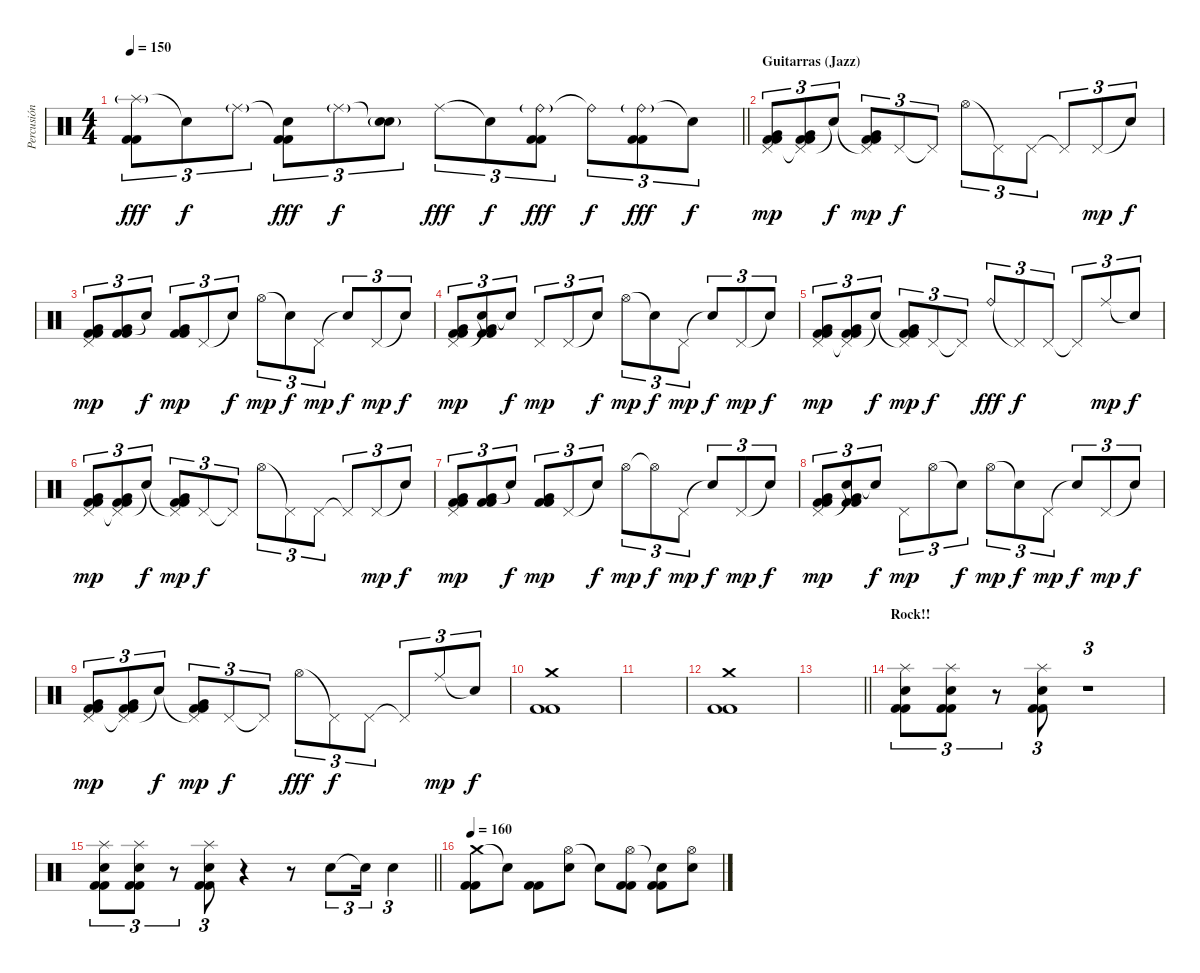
\track ("Percusión" "Percusión") {instrument percussion}
\staff {score}
\articulation defaults
\ts (4 4)
\tempo 150
\clef neutral
\barLineRight lightlight
\ks c
("Splash (hit)"{g} "Kick (hit) 2" "Kick (hit) 2").8{tu (3 2) dy fff} "Snare (hit)"{t}.8{tu (3 2) dy f} "Ride (middle)"{g}.8{tu (3 2)} ("Snare (hit)"{t} "Kick (hit) 2" "Kick (hit) 2").8{tu (3 2) dy fff} "Ride (middle)"{g}.8{tu (3 2) dy f} ("Snare (hit)"{t} "Snare (hit) 2"{g}).8{tu (3 2)} "Ride (middle)".8{tu (3 2) dy fff} "Snare (hit)"{t}.8{tu (3 2) dy f} ("Ride (bell)"{g} "Kick (hit) 2" "Kick (hit) 2").8{tu (3 2) dy fff} "Ride (bell)"{t}.8{tu (3 2) dy f} ("Ride (bell)"{g} "Kick (hit) 2" "Kick (hit) 2").8{tu (3 2) dy fff} "Snare (hit)"{t}.8{tu (3 2) dy f} |
\section ("" "Guitarras (Jazz)")
("Pedal Hi-Hat (hit)" "Very Low Tom (hit)" "Kick (hit) 2" "Kick (hit) 2").8{tu (3 2) dy mp} ("Pedal Hi-Hat (hit)"{t} "Very Low Tom (hit)" "Kick (hit) 2" "Kick (hit) 2").8{tu (3 2)} "Snare (hit)"{t}.8{tu (3 2) dy f} ("Pedal Hi-Hat (hit)"{t} "Very Low Tom (hit)" "Kick (hit) 2" "Kick (hit) 2").8{tu (3 2) dy mp} "Pedal Hi-Hat (hit)".8{tu (3 2) dy f} "Pedal Hi-Hat (hit)"{t}.8{tu (3 2)} "Hi-Hat (open)".8{tu (3 2)} "Pedal Hi-Hat (hit)"{t}.8{tu (3 2)} "Pedal Hi-Hat (hit)".8{tu (3 2)} "Pedal Hi-Hat (hit)"{t}.8{tu (3 2)} "Pedal Hi-Hat (hit)".8{tu (3 2) dy mp} "Snare (hit)"{t}.8{tu (3 2) dy f} |
("Pedal Hi-Hat (hit)" "Very Low Tom (hit)" "Kick (hit) 2" "Kick (hit) 2").8{tu (3 2) dy mp} ("Very Low Tom (hit)" "Kick (hit) 2" "Kick (hit) 2").8{tu (3 2)} "Snare (hit)"{t}.8{tu (3 2) dy f} ("Very Low Tom (hit)" "Kick (hit) 2" "Kick (hit) 2").8{tu (3 2) dy mp} "Pedal Hi-Hat (hit)".8{tu (3 2)} "Snare (hit)"{t}.8{tu (3 2) dy f} "Hi-Hat (open)".8{tu (3 2) dy mp} "Snare (hit)"{t}.8{tu (3 2) dy f} "Pedal Hi-Hat (hit)".8{tu (3 2) dy mp} "Snare (hit)"{t}.8{tu (3 2) dy f} "Pedal Hi-Hat (hit)".8{tu (3 2) dy mp} "Snare (hit)"{t}.8{tu (3 2) dy f} |
("Pedal Hi-Hat (hit)" "Very Low Tom (hit)" "Kick (hit) 2" "Kick (hit) 2").8{tu (3 2) dy mp} ("Snare (hit)"{t} "Very Low Tom (hit)" "Kick (hit) 2" "Kick (hit) 2").8{tu (3 2)} "Snare (hit)"{t}.8{tu (3 2) dy f} "Pedal Hi-Hat (hit)".8{tu (3 2) dy mp} "Pedal Hi-Hat (hit)".8{tu (3 2)} "Snare (hit)"{t}.8{tu (3 2) dy f} "Hi-Hat (open)".8{tu (3 2) dy mp} "Snare (hit)"{t}.8{tu (3 2) dy f} "Pedal Hi-Hat (hit)".8{tu (3 2) dy mp} "Snare (hit)"{t}.8{tu (3 2) dy f} "Pedal Hi-Hat (hit)".8{tu (3 2) dy mp} "Snare (hit)"{t}.8{tu (3 2) dy f} |
("Pedal Hi-Hat (hit)" "Very Low Tom (hit)" "Kick (hit) 2" "Kick (hit) 2").8{tu (3 2) dy mp} ("Pedal Hi-Hat (hit)"{t} "Very Low Tom (hit)" "Kick (hit) 2" "Kick (hit) 2").8{tu (3 2)} "Snare (hit)"{t}.8{tu (3 2) dy f} ("Pedal Hi-Hat (hit)"{t} "Very Low Tom (hit)" "Kick (hit) 2" "Kick (hit) 2").8{tu (3 2) dy mp} "Pedal Hi-Hat (hit)".8{tu (3 2) dy f} "Pedal Hi-Hat (hit)"{t}.8{tu (3 2)} "Ride (bell)".8{tu (3 2) dy fff} "Pedal Hi-Hat (hit)"{t}.8{tu (3 2) dy f} "Pedal Hi-Hat (hit)".8{tu (3 2)} "Pedal Hi-Hat (hit)"{t}.8{tu (3 2)} "Ride (middle)".8{tu (3 2) dy mp} "Snare (hit)"{t}.8{tu (3 2) dy f} |
("Pedal Hi-Hat (hit)" "Very Low Tom (hit)" "Kick (hit) 2" "Kick (hit) 2").8{tu (3 2) dy mp} ("Pedal Hi-Hat (hit)"{t} "Very Low Tom (hit)" "Kick (hit) 2" "Kick (hit) 2").8{tu (3 2)} "Snare (hit)"{t}.8{tu (3 2) dy f} ("Pedal Hi-Hat (hit)"{t} "Very Low Tom (hit)" "Kick (hit) 2" "Kick (hit) 2").8{tu (3 2) dy mp} "Pedal Hi-Hat (hit)".8{tu (3 2) dy f} "Pedal Hi-Hat (hit)"{t}.8{tu (3 2)} "Hi-Hat (open)".8{tu (3 2)} "Pedal Hi-Hat (hit)"{t}.8{tu (3 2)} "Pedal Hi-Hat (hit)".8{tu (3 2)} "Pedal Hi-Hat (hit)"{t}.8{tu (3 2)} "Pedal Hi-Hat (hit)".8{tu (3 2) dy mp} "Snare (hit)"{t}.8{tu (3 2) dy f} |
("Pedal Hi-Hat (hit)" "Very Low Tom (hit)" "Kick (hit) 2" "Kick (hit) 2").8{tu (3 2) dy mp} ("Very Low Tom (hit)" "Kick (hit) 2" "Kick (hit) 2").8{tu (3 2)} "Snare (hit)"{t}.8{tu (3 2) dy f} ("Very Low Tom (hit)" "Kick (hit) 2" "Kick (hit) 2").8{tu (3 2) dy mp} "Pedal Hi-Hat (hit)".8{tu (3 2)} "Snare (hit)"{t}.8{tu (3 2) dy f} "Hi-Hat (open)".8{tu (3 2) dy mp} "Hi-Hat (open)"{t}.8{tu (3 2) dy f} "Pedal Hi-Hat (hit)".8{tu (3 2) dy mp} "Snare (hit)"{t}.8{tu (3 2) dy f} "Pedal Hi-Hat (hit)".8{tu (3 2) dy mp} "Snare (hit)"{t}.8{tu (3 2) dy f} |
("Pedal Hi-Hat (hit)" "Very Low Tom (hit)" "Kick (hit) 2" "Kick (hit) 2").8{tu (3 2) dy mp} ("Snare (hit)"{t} "Very Low Tom (hit)" "Kick (hit) 2" "Kick (hit) 2").8{tu (3 2)} "Snare (hit)"{t}.8{tu (3 2) dy f} "Pedal Hi-Hat (hit)".8{tu (3 2) dy mp} "Hi-Hat (open)".8{tu (3 2)} "Snare (hit)"{t}.8{tu (3 2) dy f} "Hi-Hat (open)".8{tu (3 2) dy mp} "Snare (hit)"{t}.8{tu (3 2) dy f} "Pedal Hi-Hat (hit)".8{tu (3 2) dy mp} "Snare (hit)"{t}.8{tu (3 2) dy f} "Pedal Hi-Hat (hit)".8{tu (3 2) dy mp} "Snare (hit)"{t}.8{tu (3 2) dy f} |
("Pedal Hi-Hat (hit)" "Very Low Tom (hit)" "Kick (hit) 2" "Kick (hit) 2").8{tu (3 2) dy mp} ("Pedal Hi-Hat (hit)"{t} "Very Low Tom (hit)" "Kick (hit) 2" "Kick (hit) 2").8{tu (3 2)} "Snare (hit)"{t}.8{tu (3 2) dy f} ("Pedal Hi-Hat (hit)"{t} "Very Low Tom (hit)" "Kick (hit) 2" "Kick (hit) 2").8{tu (3 2) dy mp} "Pedal Hi-Hat (hit)".8{tu (3 2) dy f} "Pedal Hi-Hat (hit)"{t}.8{tu (3 2)} "Hi-Hat (open)".8{tu (3 2) dy fff} "Pedal Hi-Hat (hit)"{t}.8{tu (3 2) dy f} "Pedal Hi-Hat (hit)".8{tu (3 2)} "Pedal Hi-Hat (hit)"{t}.8{tu (3 2)} "Ride (middle)".8{tu (3 2) dy mp} "Snare (hit)"{t}.8{tu (3 2) dy f} |
("Crash medium (hit)" "Kick (hit) 2" "Kick (hit) 2").1 |
|
("Crash medium (hit)" "Kick (hit) 2" "Kick (hit) 2").1 |
\barLineRight lightlight
|
\section ("" "Rock!!")
("Splash (hit)" "Electric Snare (hit)" "Kick (hit) 2" "Kick (hit) 2").8{tu (3 2)} ("Splash (hit)" "Electric Snare (hit)" "Kick (hit) 2" "Kick (hit) 2").8{tu (3 2)} r.8{tu (3 2)} ("Splash (hit)" "Electric Snare (hit)" "Kick (hit) 2" "Kick (hit) 2").8{tu (3 2)} r.1{tu (3 2)} |
\barLineRight lightlight
("Splash (hit)" "Electric Snare (hit)" "Kick (hit) 2" "Kick (hit) 2").8{tu (3 2)} ("Splash (hit)" "Electric Snare (hit)" "Kick (hit) 2" "Kick (hit) 2").8{tu (3 2)} r.8{tu (3 2)} ("Splash (hit)" "Electric Snare (hit)" "Kick (hit) 2" "Kick (hit) 2").8{tu (3 2)} r.4 r.8 "Electric Snare (hit)".8{tu (3 2)} "Snare (hit)"{t}.16{tu (3 2)} "Electric Snare (hit)".4{tu (3 2)} |
\tempo 160
("Crash medium (hit)" "Kick (hit) 2" "Kick (hit) 2").8 "Snare (hit)"{t}.8 ("Kick (hit) 2" "Kick (hit) 2").8 ("Hi-Hat (open)" "Electric Snare (hit)").8 "Snare (hit)"{t}.8 ("Hi-Hat (open)" "Kick (hit) 2" "Kick (hit) 2").8 ("Snare (hit)"{t} "Kick (hit) 2" "Kick (hit) 2").8 ("Hi-Hat (open)" "Electric Snare (hit)").8
